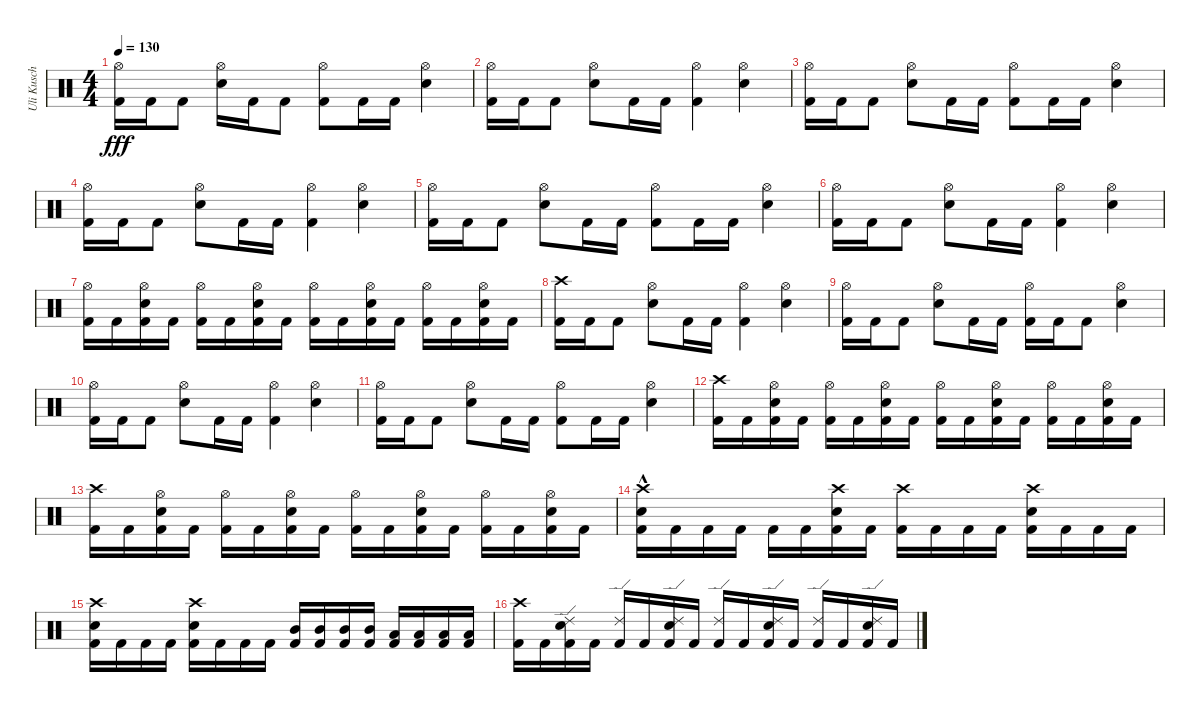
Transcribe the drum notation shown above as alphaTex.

\track ("Uli Kusch" "Uli Kusch") {instrument percussion}
\staff {score}
\articulation defaults
\ts (4 4)
\tempo 130
\clef neutral
\ks c
("Hi-Hat (open)" "Kick (hit) 2").16{dy fff} "Kick (hit) 2".16 "Kick (hit) 2".8 ("Electric Snare (hit)" "Hi-Hat (open)").16 "Kick (hit) 2".16 "Kick (hit) 2".8 ("Kick (hit) 2" "Hi-Hat (open)").8 "Kick (hit) 2".16 "Kick (hit) 2".16 ("Electric Snare (hit)" "Hi-Hat (open)").4 |
("Kick (hit) 2" "Hi-Hat (open)").16 "Kick (hit) 2".16 "Kick (hit) 2".8 ("Electric Snare (hit)" "Hi-Hat (open)").8 "Kick (hit) 2".16 "Kick (hit) 2".16 ("Hi-Hat (open)" "Kick (hit) 2").4 ("Electric Snare (hit)" "Hi-Hat (open)").4 |
("Kick (hit) 2" "Hi-Hat (open)").16 "Kick (hit) 2".16 "Kick (hit) 2".8 ("Electric Snare (hit)" "Hi-Hat (open)").8 "Kick (hit) 2".16 "Kick (hit) 2".16 ("Hi-Hat (open)" "Kick (hit) 2").8 "Kick (hit) 2".16 "Kick (hit) 2".16 ("Electric Snare (hit)" "Hi-Hat (open)").4 |
("Kick (hit) 2" "Hi-Hat (open)").16 "Kick (hit) 2".16 "Kick (hit) 2".8 ("Electric Snare (hit)" "Hi-Hat (open)").8 "Kick (hit) 2".16 "Kick (hit) 2".16 ("Hi-Hat (open)" "Kick (hit) 2").4 ("Electric Snare (hit)" "Hi-Hat (open)").4 |
("Kick (hit) 2" "Hi-Hat (open)").16 "Kick (hit) 2".16 "Kick (hit) 2".8 ("Electric Snare (hit)" "Hi-Hat (open)").8 "Kick (hit) 2".16 "Kick (hit) 2".16 ("Hi-Hat (open)" "Kick (hit) 2").8 "Kick (hit) 2".16 "Kick (hit) 2".16 ("Electric Snare (hit)" "Hi-Hat (open)").4 |
("Kick (hit) 2" "Hi-Hat (open)").16 "Kick (hit) 2".16 "Kick (hit) 2".8 ("Electric Snare (hit)" "Hi-Hat (open)").8 "Kick (hit) 2".16 "Kick (hit) 2".16 ("Hi-Hat (open)" "Kick (hit) 2").4 ("Electric Snare (hit)" "Hi-Hat (open)").4 |
("Kick (hit) 2" "Hi-Hat (open)").16 "Kick (hit) 2".16 ("Kick (hit) 2" "Hi-Hat (open)" "Electric Snare (hit)").16 "Kick (hit) 2".16 ("Kick (hit) 2" "Hi-Hat (open)").16 "Kick (hit) 2".16 ("Kick (hit) 2" "Hi-Hat (open)" "Electric Snare (hit)").16 "Kick (hit) 2".16 ("Kick (hit) 2" "Hi-Hat (open)").16 "Kick (hit) 2".16 ("Kick (hit) 2" "Hi-Hat (open)" "Electric Snare (hit)").16 "Kick (hit) 2".16 ("Kick (hit) 2" "Hi-Hat (open)").16 "Kick (hit) 2".16 ("Kick (hit) 2" "Hi-Hat (open)" "Electric Snare (hit)").16 "Kick (hit) 2".16 |
("Crash high (hit)" "Kick (hit) 2").16 "Kick (hit) 2".16 "Kick (hit) 2".8 ("Electric Snare (hit)" "Hi-Hat (open)").8 "Kick (hit) 2".16 "Kick (hit) 2".16 ("Hi-Hat (open)" "Kick (hit) 2").4 ("Electric Snare (hit)" "Hi-Hat (open)").4 |
("Kick (hit) 2" "Hi-Hat (open)").16 "Kick (hit) 2".16 "Kick (hit) 2".8 ("Electric Snare (hit)" "Hi-Hat (open)").8 "Kick (hit) 2".16 "Kick (hit) 2".16 ("Hi-Hat (open)" "Kick (hit) 2").16 "Kick (hit) 2".16 "Kick (hit) 2".8 ("Electric Snare (hit)" "Hi-Hat (open)").4 |
("Kick (hit) 2" "Hi-Hat (open)").16 "Kick (hit) 2".16 "Kick (hit) 2".8 ("Electric Snare (hit)" "Hi-Hat (open)").8 "Kick (hit) 2".16 "Kick (hit) 2".16 ("Hi-Hat (open)" "Kick (hit) 2").4 ("Electric Snare (hit)" "Hi-Hat (open)").4 |
("Kick (hit) 2" "Hi-Hat (open)").16 "Kick (hit) 2".16 "Kick (hit) 2".8 ("Electric Snare (hit)" "Hi-Hat (open)").8 "Kick (hit) 2".16 "Kick (hit) 2".16 ("Hi-Hat (open)" "Kick (hit) 2").8 "Kick (hit) 2".16 "Kick (hit) 2".16 ("Electric Snare (hit)" "Hi-Hat (open)").4 |
("Kick (hit) 2" "Crash high (hit)").16 "Kick (hit) 2".16 ("Kick (hit) 2" "Hi-Hat (open)" "Electric Snare (hit)").16 "Kick (hit) 2".16 ("Kick (hit) 2" "Hi-Hat (open)").16 "Kick (hit) 2".16 ("Kick (hit) 2" "Hi-Hat (open)" "Electric Snare (hit)").16 "Kick (hit) 2".16 ("Kick (hit) 2" "Hi-Hat (open)").16 "Kick (hit) 2".16 ("Kick (hit) 2" "Hi-Hat (open)" "Electric Snare (hit)").16 "Kick (hit) 2".16 ("Kick (hit) 2" "Hi-Hat (open)").16 "Kick (hit) 2".16 ("Kick (hit) 2" "Hi-Hat (open)" "Electric Snare (hit)").16 "Kick (hit) 2".16 |
("Kick (hit) 2" "Crash high (hit)").16 "Kick (hit) 2".16 ("Kick (hit) 2" "Hi-Hat (open)" "Electric Snare (hit)").16 "Kick (hit) 2".16 ("Kick (hit) 2" "Hi-Hat (open)").16 "Kick (hit) 2".16 ("Kick (hit) 2" "Hi-Hat (open)" "Electric Snare (hit)").16 "Kick (hit) 2".16 ("Kick (hit) 2" "Hi-Hat (open)").16 "Kick (hit) 2".16 ("Kick (hit) 2" "Hi-Hat (open)" "Electric Snare (hit)").16 "Kick (hit) 2".16 ("Kick (hit) 2" "Hi-Hat (open)").16 "Kick (hit) 2".16 ("Kick (hit) 2" "Hi-Hat (open)" "Electric Snare (hit)").16 "Kick (hit) 2".16 |
("Kick (hit) 2" "Electric Snare (hit)"{hac} "Crash high (hit)"{hac}).16 "Kick (hit) 2".16 "Kick (hit) 2".16 "Kick (hit) 2".16 "Kick (hit) 2".16 "Kick (hit) 2".16 ("Kick (hit) 2" "Electric Snare (hit)" "Crash high (hit)").16 "Kick (hit) 2".16 ("Kick (hit) 2" "Crash high (hit)").16 "Kick (hit) 2".16 "Kick (hit) 2".16 "Kick (hit) 2".16 ("Kick (hit) 2" "Electric Snare (hit)" "Crash high (hit)").16 "Kick (hit) 2".16 "Kick (hit) 2".16 "Kick (hit) 2".16 |
("Kick (hit) 2" "Electric Snare (hit)" "Crash high (hit)").16 "Kick (hit) 2".16 "Kick (hit) 2".16 "Kick (hit) 2".16 ("Kick (hit) 2" "Electric Snare (hit)" "Crash high (hit)").16 "Kick (hit) 2".16 "Kick (hit) 2".16 "Kick (hit) 2".16 ("Kick (hit) 2" "Mid Tom (hit)").16 ("Kick (hit) 2" "Mid Tom (hit)").16 ("Kick (hit) 2" "Mid Tom (hit)").16 ("Kick (hit) 2" "Mid Tom (hit)").16 ("Kick (hit) 2" "Low Tom (hit)").16 ("Kick (hit) 2" "Low Tom (hit)").16 ("Kick (hit) 2" "Low Tom (hit)").16 ("Kick (hit) 2" "Low Tom (hit)").16 |
("Kick (hit) 2" "Crash high (hit)").16 "Kick (hit) 2".16 ("Kick (hit) 2" "Electric Snare (hit)" "Ride (edge) 2").16 "Kick (hit) 2".16 ("Kick (hit) 2" "Ride (edge) 2").16 "Kick (hit) 2".16 ("Kick (hit) 2" "Electric Snare (hit)" "Ride (edge) 2").16 "Kick (hit) 2".16 ("Kick (hit) 2" "Ride (edge) 2").16 "Kick (hit) 2".16 ("Kick (hit) 2" "Electric Snare (hit)" "Ride (edge) 2").16 "Kick (hit) 2".16 ("Kick (hit) 2" "Ride (edge) 2").16 "Kick (hit) 2".16 ("Kick (hit) 2" "Electric Snare (hit)" "Ride (edge) 2").16 "Kick (hit) 2".16
